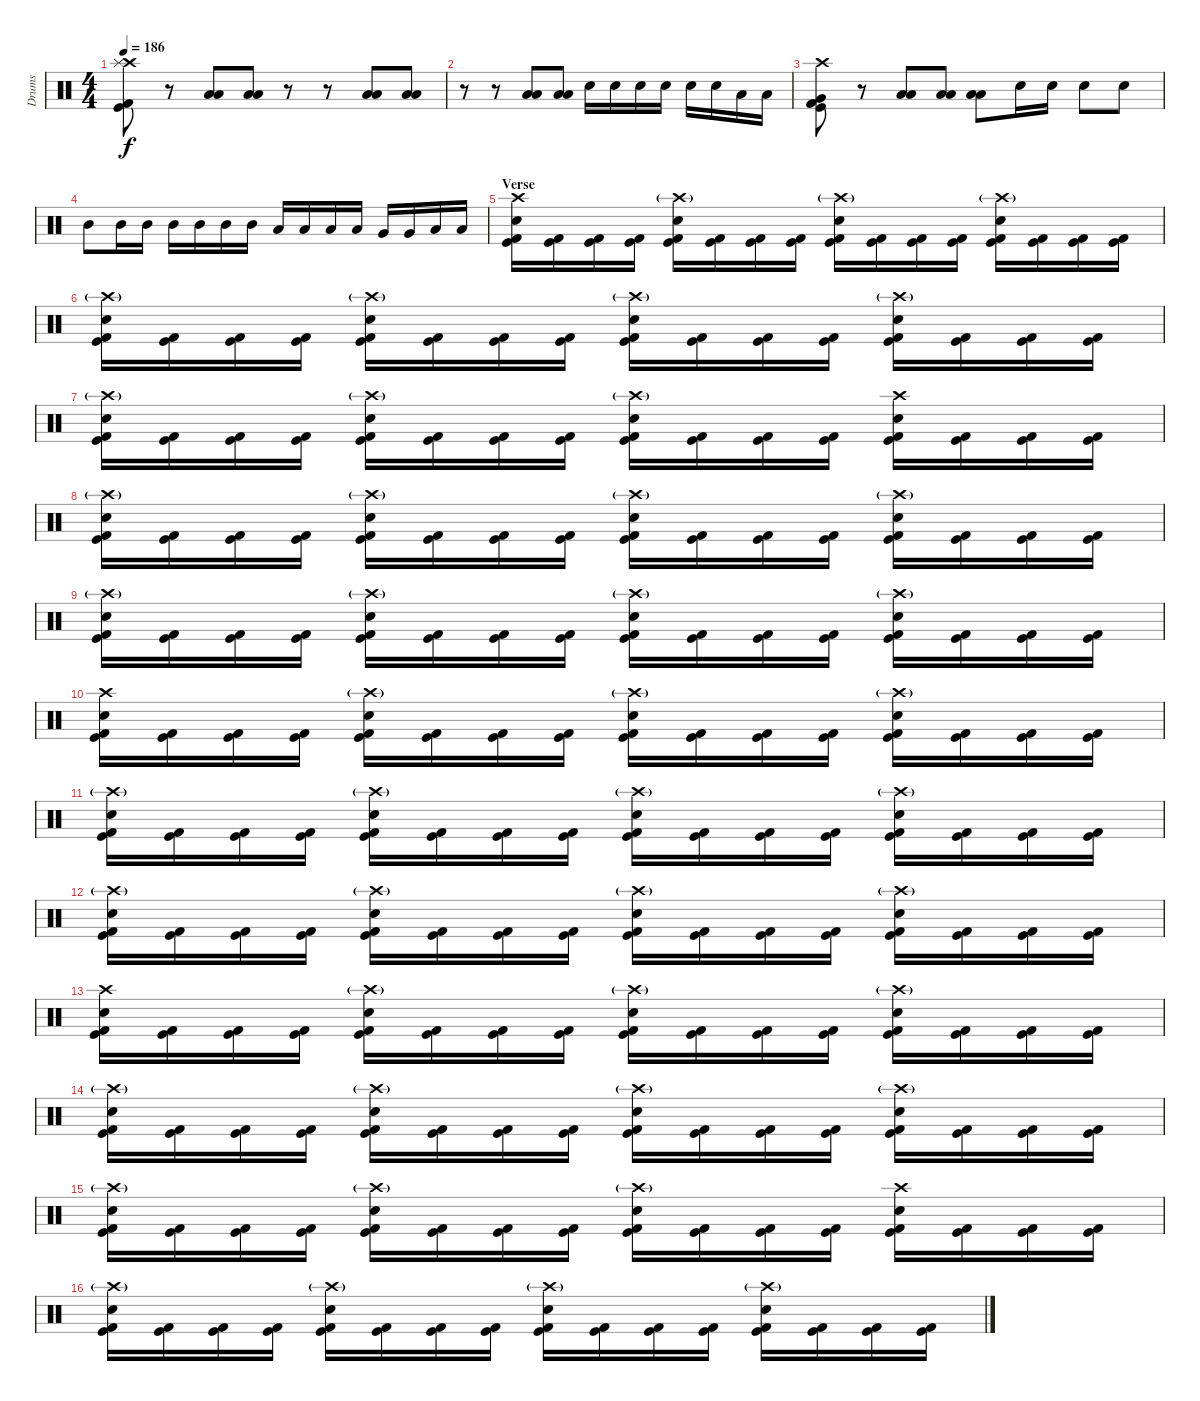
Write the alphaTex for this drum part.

\track ("Drums" "Drums") {instrument percussion}
\staff {score}
\articulation defaults
\ts (4 4)
\tempo 186
\clef neutral
\ks c
("Crash high (hit)" "Splash (hit)" "Kick (hit)" "Kick (hit) 2").8{dy f} r.8 ("Low Tom (hit)" "Low Floor Tom (hit)").8 ("Low Tom (hit)" "Low Floor Tom (hit)").8 r.8 r.8 ("Low Tom (hit)" "Low Floor Tom (hit)").8 ("Low Tom (hit)" "Low Floor Tom (hit)").8 |
r.8 r.8 ("Low Tom (hit)" "Low Floor Tom (hit)").8 ("Low Tom (hit)" "Low Floor Tom (hit)").8 "Electric Snare (hit)".16 "Electric Snare (hit)".16 "Electric Snare (hit)".16 "Electric Snare (hit)".16 "Electric Snare (hit)".16 "Electric Snare (hit)".16 "Low Tom (hit)".16 "Low Tom (hit)".16 |
("Crash high (hit)" "Very Low Tom (hit)" "Kick (hit)" "Kick (hit) 2").8 r.8 ("Low Tom (hit)" "Low Floor Tom (hit)").8 ("Low Tom (hit)" "Low Floor Tom (hit)").8 ("Low Tom (hit)" "Low Floor Tom (hit)").8 "Electric Snare (hit)".16 "Electric Snare (hit)".16 "Electric Snare (hit)".8 "Electric Snare (hit)".8 |
"Mid Tom (hit)".8 "Mid Tom (hit)".16 "Mid Tom (hit)".16 "Mid Tom (hit)".16 "Mid Tom (hit)".16 "Mid Tom (hit)".16 "Mid Tom (hit)".16 "Low Tom (hit)".16 "Low Tom (hit)".16 "Low Tom (hit)".16 "Low Tom (hit)".16 "Very Low Tom (hit)".16 "Very Low Tom (hit)".16 "Low Floor Tom (hit)".16 "Low Floor Tom (hit)".16 |
\section ("" "Verse")
("Crash high (hit)" "Electric Snare (hit)" "Kick (hit)" "Kick (hit) 2").16 ("Kick (hit)" "Kick (hit) 2").16 ("Kick (hit)" "Kick (hit) 2").16 ("Kick (hit)" "Kick (hit) 2").16 ("Crash high (hit)"{g} "Electric Snare (hit)" "Kick (hit)" "Kick (hit) 2").16 ("Kick (hit)" "Kick (hit) 2").16 ("Kick (hit)" "Kick (hit) 2").16 ("Kick (hit)" "Kick (hit) 2").16 ("Crash high (hit)"{g} "Electric Snare (hit)" "Kick (hit)" "Kick (hit) 2").16 ("Kick (hit)" "Kick (hit) 2").16 ("Kick (hit)" "Kick (hit) 2").16 ("Kick (hit)" "Kick (hit) 2").16 ("Crash high (hit)"{g} "Electric Snare (hit)" "Kick (hit)" "Kick (hit) 2").16 ("Kick (hit)" "Kick (hit) 2").16 ("Kick (hit)" "Kick (hit) 2").16 ("Kick (hit)" "Kick (hit) 2").16 |
("Crash high (hit)"{g} "Electric Snare (hit)" "Kick (hit)" "Kick (hit) 2").16 ("Kick (hit)" "Kick (hit) 2").16 ("Kick (hit)" "Kick (hit) 2").16 ("Kick (hit)" "Kick (hit) 2").16 ("Crash high (hit)"{g} "Electric Snare (hit)" "Kick (hit)" "Kick (hit) 2").16 ("Kick (hit)" "Kick (hit) 2").16 ("Kick (hit)" "Kick (hit) 2").16 ("Kick (hit)" "Kick (hit) 2").16 ("Crash high (hit)"{g} "Electric Snare (hit)" "Kick (hit)" "Kick (hit) 2").16 ("Kick (hit)" "Kick (hit) 2").16 ("Kick (hit)" "Kick (hit) 2").16 ("Kick (hit)" "Kick (hit) 2").16 ("Crash high (hit)"{g} "Electric Snare (hit)" "Kick (hit)" "Kick (hit) 2").16 ("Kick (hit)" "Kick (hit) 2").16 ("Kick (hit)" "Kick (hit) 2").16 ("Kick (hit)" "Kick (hit) 2").16 |
("Crash high (hit)"{g} "Electric Snare (hit)" "Kick (hit)" "Kick (hit) 2").16 ("Kick (hit)" "Kick (hit) 2").16 ("Kick (hit)" "Kick (hit) 2").16 ("Kick (hit)" "Kick (hit) 2").16 ("Crash high (hit)"{g} "Electric Snare (hit)" "Kick (hit)" "Kick (hit) 2").16 ("Kick (hit)" "Kick (hit) 2").16 ("Kick (hit)" "Kick (hit) 2").16 ("Kick (hit)" "Kick (hit) 2").16 ("Crash high (hit)"{g} "Electric Snare (hit)" "Kick (hit)" "Kick (hit) 2").16 ("Kick (hit)" "Kick (hit) 2").16 ("Kick (hit)" "Kick (hit) 2").16 ("Kick (hit)" "Kick (hit) 2").16 ("Crash high (hit)" "Electric Snare (hit)" "Kick (hit)" "Kick (hit) 2").16 ("Kick (hit)" "Kick (hit) 2").16 ("Kick (hit)" "Kick (hit) 2").16 ("Kick (hit)" "Kick (hit) 2").16 |
("Crash high (hit)"{g} "Electric Snare (hit)" "Kick (hit)" "Kick (hit) 2").16 ("Kick (hit)" "Kick (hit) 2").16 ("Kick (hit)" "Kick (hit) 2").16 ("Kick (hit)" "Kick (hit) 2").16 ("Crash high (hit)"{g} "Electric Snare (hit)" "Kick (hit)" "Kick (hit) 2").16 ("Kick (hit)" "Kick (hit) 2").16 ("Kick (hit)" "Kick (hit) 2").16 ("Kick (hit)" "Kick (hit) 2").16 ("Crash high (hit)"{g} "Electric Snare (hit)" "Kick (hit)" "Kick (hit) 2").16 ("Kick (hit)" "Kick (hit) 2").16 ("Kick (hit)" "Kick (hit) 2").16 ("Kick (hit)" "Kick (hit) 2").16 ("Crash high (hit)"{g} "Electric Snare (hit)" "Kick (hit)" "Kick (hit) 2").16 ("Kick (hit)" "Kick (hit) 2").16 ("Kick (hit)" "Kick (hit) 2").16 ("Kick (hit)" "Kick (hit) 2").16 |
("Crash high (hit)"{g} "Electric Snare (hit)" "Kick (hit)" "Kick (hit) 2").16 ("Kick (hit)" "Kick (hit) 2").16 ("Kick (hit)" "Kick (hit) 2").16 ("Kick (hit)" "Kick (hit) 2").16 ("Crash high (hit)"{g} "Electric Snare (hit)" "Kick (hit)" "Kick (hit) 2").16 ("Kick (hit)" "Kick (hit) 2").16 ("Kick (hit)" "Kick (hit) 2").16 ("Kick (hit)" "Kick (hit) 2").16 ("Crash high (hit)"{g} "Electric Snare (hit)" "Kick (hit)" "Kick (hit) 2").16 ("Kick (hit)" "Kick (hit) 2").16 ("Kick (hit)" "Kick (hit) 2").16 ("Kick (hit)" "Kick (hit) 2").16 ("Crash high (hit)"{g} "Electric Snare (hit)" "Kick (hit)" "Kick (hit) 2").16 ("Kick (hit)" "Kick (hit) 2").16 ("Kick (hit)" "Kick (hit) 2").16 ("Kick (hit)" "Kick (hit) 2").16 |
("Crash high (hit)" "Electric Snare (hit)" "Kick (hit)" "Kick (hit) 2").16 ("Kick (hit)" "Kick (hit) 2").16 ("Kick (hit)" "Kick (hit) 2").16 ("Kick (hit)" "Kick (hit) 2").16 ("Crash high (hit)"{g} "Electric Snare (hit)" "Kick (hit)" "Kick (hit) 2").16 ("Kick (hit)" "Kick (hit) 2").16 ("Kick (hit)" "Kick (hit) 2").16 ("Kick (hit)" "Kick (hit) 2").16 ("Crash high (hit)"{g} "Electric Snare (hit)" "Kick (hit)" "Kick (hit) 2").16 ("Kick (hit)" "Kick (hit) 2").16 ("Kick (hit)" "Kick (hit) 2").16 ("Kick (hit)" "Kick (hit) 2").16 ("Crash high (hit)"{g} "Electric Snare (hit)" "Kick (hit)" "Kick (hit) 2").16 ("Kick (hit)" "Kick (hit) 2").16 ("Kick (hit)" "Kick (hit) 2").16 ("Kick (hit)" "Kick (hit) 2").16 |
("Crash high (hit)"{g} "Electric Snare (hit)" "Kick (hit)" "Kick (hit) 2").16 ("Kick (hit)" "Kick (hit) 2").16 ("Kick (hit)" "Kick (hit) 2").16 ("Kick (hit)" "Kick (hit) 2").16 ("Crash high (hit)"{g} "Electric Snare (hit)" "Kick (hit)" "Kick (hit) 2").16 ("Kick (hit)" "Kick (hit) 2").16 ("Kick (hit)" "Kick (hit) 2").16 ("Kick (hit)" "Kick (hit) 2").16 ("Crash high (hit)"{g} "Electric Snare (hit)" "Kick (hit)" "Kick (hit) 2").16 ("Kick (hit)" "Kick (hit) 2").16 ("Kick (hit)" "Kick (hit) 2").16 ("Kick (hit)" "Kick (hit) 2").16 ("Crash high (hit)"{g} "Electric Snare (hit)" "Kick (hit)" "Kick (hit) 2").16 ("Kick (hit)" "Kick (hit) 2").16 ("Kick (hit)" "Kick (hit) 2").16 ("Kick (hit)" "Kick (hit) 2").16 |
("Crash high (hit)"{g} "Electric Snare (hit)" "Kick (hit)" "Kick (hit) 2").16 ("Kick (hit)" "Kick (hit) 2").16 ("Kick (hit)" "Kick (hit) 2").16 ("Kick (hit)" "Kick (hit) 2").16 ("Crash high (hit)"{g} "Electric Snare (hit)" "Kick (hit)" "Kick (hit) 2").16 ("Kick (hit)" "Kick (hit) 2").16 ("Kick (hit)" "Kick (hit) 2").16 ("Kick (hit)" "Kick (hit) 2").16 ("Crash high (hit)"{g} "Electric Snare (hit)" "Kick (hit)" "Kick (hit) 2").16 ("Kick (hit)" "Kick (hit) 2").16 ("Kick (hit)" "Kick (hit) 2").16 ("Kick (hit)" "Kick (hit) 2").16 ("Crash high (hit)"{g} "Electric Snare (hit)" "Kick (hit)" "Kick (hit) 2").16 ("Kick (hit)" "Kick (hit) 2").16 ("Kick (hit)" "Kick (hit) 2").16 ("Kick (hit)" "Kick (hit) 2").16 |
("Crash high (hit)" "Electric Snare (hit)" "Kick (hit)" "Kick (hit) 2").16 ("Kick (hit)" "Kick (hit) 2").16 ("Kick (hit)" "Kick (hit) 2").16 ("Kick (hit)" "Kick (hit) 2").16 ("Crash high (hit)"{g} "Electric Snare (hit)" "Kick (hit)" "Kick (hit) 2").16 ("Kick (hit)" "Kick (hit) 2").16 ("Kick (hit)" "Kick (hit) 2").16 ("Kick (hit)" "Kick (hit) 2").16 ("Crash high (hit)"{g} "Electric Snare (hit)" "Kick (hit)" "Kick (hit) 2").16 ("Kick (hit)" "Kick (hit) 2").16 ("Kick (hit)" "Kick (hit) 2").16 ("Kick (hit)" "Kick (hit) 2").16 ("Crash high (hit)"{g} "Electric Snare (hit)" "Kick (hit)" "Kick (hit) 2").16 ("Kick (hit)" "Kick (hit) 2").16 ("Kick (hit)" "Kick (hit) 2").16 ("Kick (hit)" "Kick (hit) 2").16 |
("Crash high (hit)"{g} "Electric Snare (hit)" "Kick (hit)" "Kick (hit) 2").16 ("Kick (hit)" "Kick (hit) 2").16 ("Kick (hit)" "Kick (hit) 2").16 ("Kick (hit)" "Kick (hit) 2").16 ("Crash high (hit)"{g} "Electric Snare (hit)" "Kick (hit)" "Kick (hit) 2").16 ("Kick (hit)" "Kick (hit) 2").16 ("Kick (hit)" "Kick (hit) 2").16 ("Kick (hit)" "Kick (hit) 2").16 ("Crash high (hit)"{g} "Electric Snare (hit)" "Kick (hit)" "Kick (hit) 2").16 ("Kick (hit)" "Kick (hit) 2").16 ("Kick (hit)" "Kick (hit) 2").16 ("Kick (hit)" "Kick (hit) 2").16 ("Crash high (hit)"{g} "Electric Snare (hit)" "Kick (hit)" "Kick (hit) 2").16 ("Kick (hit)" "Kick (hit) 2").16 ("Kick (hit)" "Kick (hit) 2").16 ("Kick (hit)" "Kick (hit) 2").16 |
("Crash high (hit)"{g} "Electric Snare (hit)" "Kick (hit)" "Kick (hit) 2").16 ("Kick (hit)" "Kick (hit) 2").16 ("Kick (hit)" "Kick (hit) 2").16 ("Kick (hit)" "Kick (hit) 2").16 ("Crash high (hit)"{g} "Electric Snare (hit)" "Kick (hit)" "Kick (hit) 2").16 ("Kick (hit)" "Kick (hit) 2").16 ("Kick (hit)" "Kick (hit) 2").16 ("Kick (hit)" "Kick (hit) 2").16 ("Crash high (hit)"{g} "Electric Snare (hit)" "Kick (hit)" "Kick (hit) 2").16 ("Kick (hit)" "Kick (hit) 2").16 ("Kick (hit)" "Kick (hit) 2").16 ("Kick (hit)" "Kick (hit) 2").16 ("Crash high (hit)" "Electric Snare (hit)" "Kick (hit)" "Kick (hit) 2").16 ("Kick (hit)" "Kick (hit) 2").16 ("Kick (hit)" "Kick (hit) 2").16 ("Kick (hit)" "Kick (hit) 2").16 |
("Crash high (hit)"{g} "Electric Snare (hit)" "Kick (hit)" "Kick (hit) 2").16 ("Kick (hit)" "Kick (hit) 2").16 ("Kick (hit)" "Kick (hit) 2").16 ("Kick (hit)" "Kick (hit) 2").16 ("Crash high (hit)"{g} "Electric Snare (hit)" "Kick (hit)" "Kick (hit) 2").16 ("Kick (hit)" "Kick (hit) 2").16 ("Kick (hit)" "Kick (hit) 2").16 ("Kick (hit)" "Kick (hit) 2").16 ("Crash high (hit)"{g} "Electric Snare (hit)" "Kick (hit)" "Kick (hit) 2").16 ("Kick (hit)" "Kick (hit) 2").16 ("Kick (hit)" "Kick (hit) 2").16 ("Kick (hit)" "Kick (hit) 2").16 ("Crash high (hit)"{g} "Electric Snare (hit)" "Kick (hit)" "Kick (hit) 2").16 ("Kick (hit)" "Kick (hit) 2").16 ("Kick (hit)" "Kick (hit) 2").16 ("Kick (hit)" "Kick (hit) 2").16
